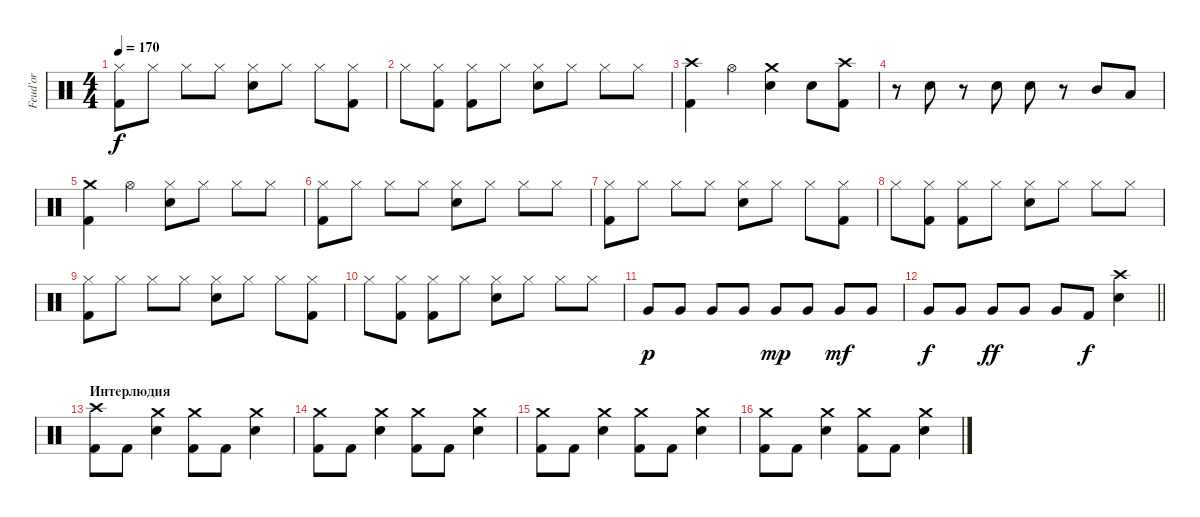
\track ("Feud'or" "Feud'or") {instrument percussion}
\staff {score}
\articulation defaults
\ts (4 4)
\tempo 170
\clef neutral
\ks c
("Hi-Hat (closed)" "Kick (hit) 2").8{dy f} "Hi-Hat (closed)".8 "Hi-Hat (closed)".8 "Hi-Hat (closed)".8 ("Hi-Hat (closed)" "Electric Snare (hit)").8 "Hi-Hat (closed)".8 "Hi-Hat (closed)".8 ("Hi-Hat (closed)" "Kick (hit) 2").8 |
"Hi-Hat (closed)".8 ("Hi-Hat (closed)" "Kick (hit) 2").8 ("Hi-Hat (closed)" "Kick (hit) 2").8 "Hi-Hat (closed)".8 ("Hi-Hat (closed)" "Electric Snare (hit)").8 "Hi-Hat (closed)".8 "Hi-Hat (closed)".8 "Hi-Hat (closed)".8 |
("Crash high (hit)" "Kick (hit) 2").4 "Hi-Hat (open)".4 ("Crash medium (hit)" "Electric Snare (hit)").4 "Electric Snare (hit)".8 ("Crash high (hit)" "Kick (hit) 2").8 |
r.8 "Electric Snare (hit)".8 r.8 "Electric Snare (hit)".8 "Electric Snare (hit)".8 r.8 "Mid Tom (hit)".8 "Low Tom (hit)".8 |
("Crash medium (hit)" "Kick (hit) 2").4 "Hi-Hat (open)".4 ("Hi-Hat (closed)" "Electric Snare (hit)").8 "Hi-Hat (closed)".8 "Hi-Hat (closed)".8 "Hi-Hat (closed)".8 |
("Hi-Hat (closed)" "Kick (hit) 2").8 "Hi-Hat (closed)".8 "Hi-Hat (closed)".8 "Hi-Hat (closed)".8 ("Hi-Hat (closed)" "Electric Snare (hit)").8 "Hi-Hat (closed)".8 "Hi-Hat (closed)".8 "Hi-Hat (closed)".8 |
("Hi-Hat (closed)" "Kick (hit) 2").8 "Hi-Hat (closed)".8 "Hi-Hat (closed)".8 "Hi-Hat (closed)".8 ("Hi-Hat (closed)" "Electric Snare (hit)").8 "Hi-Hat (closed)".8 "Hi-Hat (closed)".8 ("Hi-Hat (closed)" "Kick (hit) 2").8 |
"Hi-Hat (closed)".8 ("Hi-Hat (closed)" "Kick (hit) 2").8 ("Hi-Hat (closed)" "Kick (hit) 2").8 "Hi-Hat (closed)".8 ("Hi-Hat (closed)" "Electric Snare (hit)").8 "Hi-Hat (closed)".8 "Hi-Hat (closed)".8 "Hi-Hat (closed)".8 |
("Hi-Hat (closed)" "Kick (hit) 2").8 "Hi-Hat (closed)".8 "Hi-Hat (closed)".8 "Hi-Hat (closed)".8 ("Hi-Hat (closed)" "Electric Snare (hit)").8 "Hi-Hat (closed)".8 "Hi-Hat (closed)".8 ("Hi-Hat (closed)" "Kick (hit) 2").8 |
"Hi-Hat (closed)".8 ("Hi-Hat (closed)" "Kick (hit) 2").8 ("Hi-Hat (closed)" "Kick (hit) 2").8 "Hi-Hat (closed)".8 ("Hi-Hat (closed)" "Electric Snare (hit)").8 "Hi-Hat (closed)".8 "Hi-Hat (closed)".8 "Hi-Hat (closed)".8 |
"Very Low Tom (hit)".8{dy p} "Very Low Tom (hit)".8 "Very Low Tom (hit)".8 "Very Low Tom (hit)".8 "Very Low Tom (hit)".8{dy mp} "Very Low Tom (hit)".8 "Very Low Tom (hit)".8{dy mf} "Very Low Tom (hit)".8 |
\barLineRight lightlight "Very Low Tom (hit)".8{dy f} "Very Low Tom (hit)".8 "Very Low Tom (hit)".8{dy ff} "Very Low Tom (hit)".8 "Very Low Tom (hit)".8 "Kick (hit) 2".8{dy f}
("Crash high (hit)" "Electric Snare (hit)").4 |
\section ("" "Интерлюдия")
("Crash high (hit)" "Kick (hit) 2").8 "Kick (hit) 2".8 ("Crash medium (hit)" "Electric Snare (hit)").4 ("Crash medium (hit)" "Kick (hit) 2").8 "Kick (hit) 2".8 ("Crash medium (hit)" "Electric Snare (hit)").4 |
("Crash medium (hit)" "Kick (hit) 2").8 "Kick (hit) 2".8 ("Crash medium (hit)" "Electric Snare (hit)").4 ("Crash medium (hit)" "Kick (hit) 2").8 "Kick (hit) 2".8 ("Crash medium (hit)" "Electric Snare (hit)").4 |
("Crash medium (hit)" "Kick (hit) 2").8 "Kick (hit) 2".8 ("Crash medium (hit)" "Electric Snare (hit)").4 ("Crash medium (hit)" "Kick (hit) 2").8 "Kick (hit) 2".8 ("Crash medium (hit)" "Electric Snare (hit)").4 |
("Crash medium (hit)" "Kick (hit) 2").8 "Kick (hit) 2".8 ("Crash medium (hit)" "Electric Snare (hit)").4 ("Crash medium (hit)" "Kick (hit) 2").8 "Kick (hit) 2".8 ("Crash medium (hit)" "Electric Snare (hit)").4
